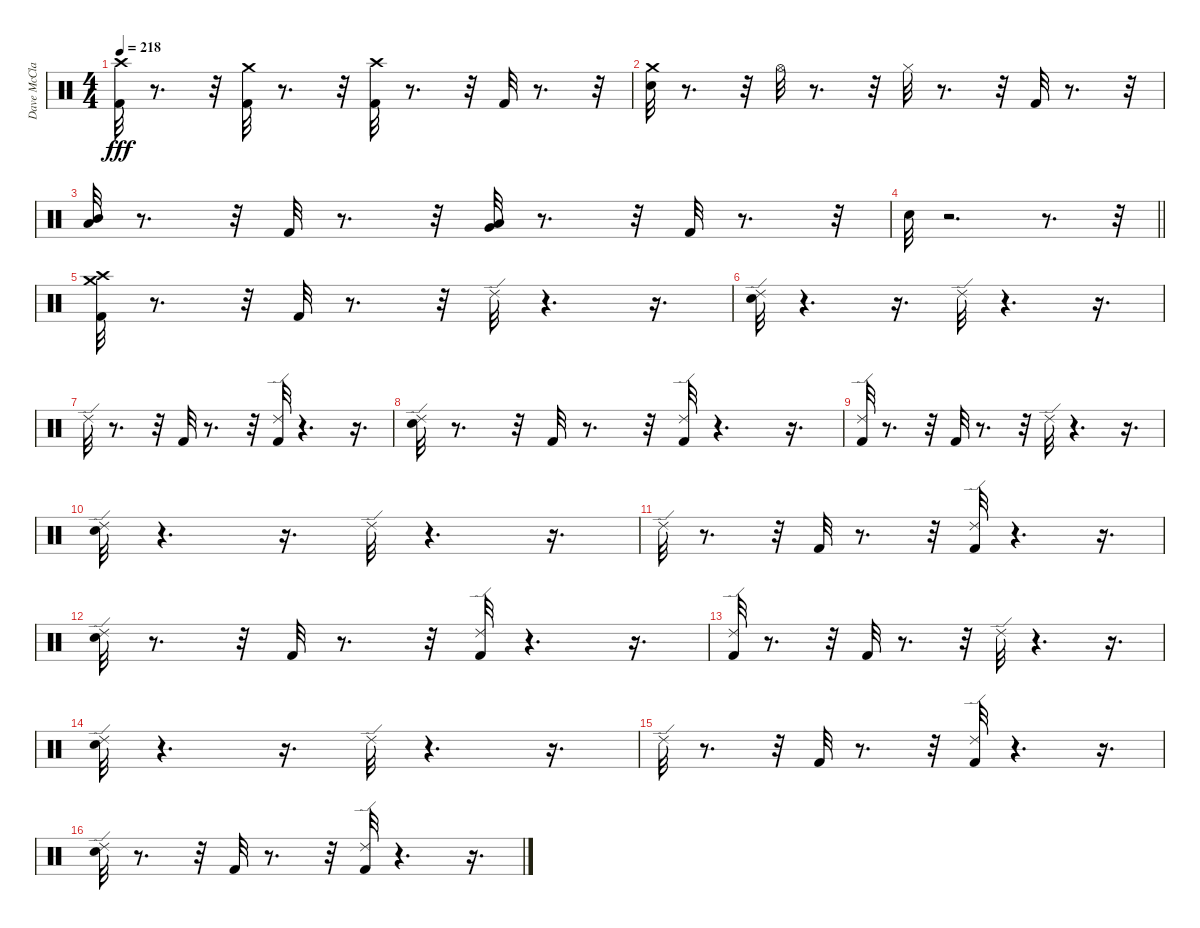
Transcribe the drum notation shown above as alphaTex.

\track ("Dave McClain" "Dave McCla") {instrument percussion}
\staff {score}
\articulation defaults
\ts (4 4)
\tempo 218
\clef neutral
\ks c
("Crash high (hit)" "Kick (hit) 2").32{dy fff} r.8{d} r.32 ("Crash medium (hit)" "Kick (hit) 2").32 r.8{d} r.32 ("Kick (hit) 2" "Crash high (hit)").32 r.8{d} r.32 "Kick (hit) 2".32 r.8{d} r.32 |
("Crash medium (hit)" "Snare (hit) 2").32 r.8{d} r.32 "Hi-Hat (open)".32 r.8{d} r.32 "Hi-Hat (closed)".32 r.8{d} r.32 "Kick (hit) 2".32 r.8{d} r.32 |
("Mid Tom (hit)" "Low Tom (hit)").32 r.8{d} r.32 "Kick (hit) 2".32 r.8{d} r.32 ("Low Tom (hit)" "Very Low Tom (hit)").32 r.8{d} r.32 "Kick (hit) 2".32 r.8{d} r.32 |
\barLineRight lightlight "Snare (hit) 2".32
r.2{d} r.8{d} r.32 |
("Crash medium (hit)" "Crash high (hit)" "Kick (hit) 2").32 r.8{d} r.32 "Kick (hit) 2".32 r.8{d} r.32 "Ride (edge) 2".32 r.4{d} r.16{d} |
("Ride (edge) 2" "Snare (hit) 2").32 r.4{d} r.16{d} "Ride (edge) 2".32 r.4{d} r.16{d} |
"Ride (edge) 2".32 r.8{d} r.32 "Kick (hit) 2".32 r.8{d} r.32 ("Kick (hit) 2" "Ride (edge) 2").32 r.4{d} r.16{d} |
("Snare (hit) 2" "Ride (edge) 2").32 r.8{d} r.32 "Kick (hit) 2".32 r.8{d} r.32 ("Kick (hit) 2" "Ride (edge) 2").32 r.4{d} r.16{d} |
("Ride (edge) 2" "Kick (hit) 2").32 r.8{d} r.32 "Kick (hit) 2".32 r.8{d} r.32 "Ride (edge) 2".32 r.4{d} r.16{d} |
("Ride (edge) 2" "Snare (hit) 2").32 r.4{d} r.16{d} "Ride (edge) 2".32 r.4{d} r.16{d} |
"Ride (edge) 2".32 r.8{d} r.32 "Kick (hit) 2".32 r.8{d} r.32 ("Kick (hit) 2" "Ride (edge) 2").32 r.4{d} r.16{d} |
("Snare (hit) 2" "Ride (edge) 2").32 r.8{d} r.32 "Kick (hit) 2".32 r.8{d} r.32 ("Kick (hit) 2" "Ride (edge) 2").32 r.4{d} r.16{d} |
("Ride (edge) 2" "Kick (hit) 2").32 r.8{d} r.32 "Kick (hit) 2".32 r.8{d} r.32 "Ride (edge) 2".32 r.4{d} r.16{d} |
("Ride (edge) 2" "Snare (hit) 2").32 r.4{d} r.16{d} "Ride (edge) 2".32 r.4{d} r.16{d} |
"Ride (edge) 2".32 r.8{d} r.32 "Kick (hit) 2".32 r.8{d} r.32 ("Kick (hit) 2" "Ride (edge) 2").32 r.4{d} r.16{d} |
("Snare (hit) 2" "Ride (edge) 2").32 r.8{d} r.32 "Kick (hit) 2".32 r.8{d} r.32 ("Kick (hit) 2" "Ride (edge) 2").32 r.4{d} r.16{d}
